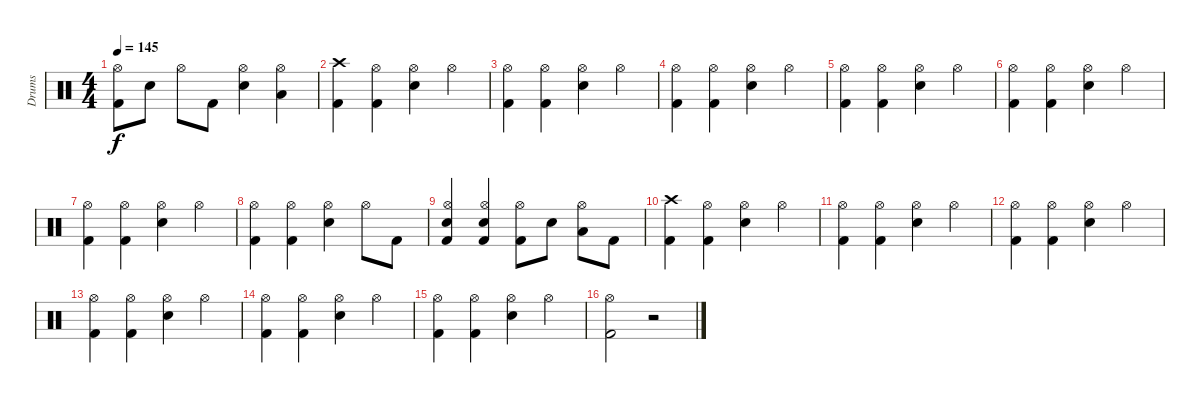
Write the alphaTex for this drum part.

\track ("Drums" "Drums") {instrument percussion}
\staff {score}
\articulation defaults
\ts (4 4)
\tempo 145
\clef neutral
\ks c
("Kick (hit) 2" "Hi-Hat (open)").8{dy f} "Snare (hit) 2".8 "Hi-Hat (open)".8 "Kick (hit) 2".8 ("Snare (hit) 2" "Hi-Hat (open)").4 ("Low Tom (hit)" "Hi-Hat (open)").4 |
("Crash high (hit)" "Kick (hit) 2").4 ("Kick (hit) 2" "Hi-Hat (open)").4 ("Snare (hit) 2" "Hi-Hat (open)").4 "Hi-Hat (open)".4 |
("Kick (hit) 2" "Hi-Hat (open)").4 ("Kick (hit) 2" "Hi-Hat (open)").4 ("Snare (hit) 2" "Hi-Hat (open)").4 "Hi-Hat (open)".4 |
("Kick (hit) 2" "Hi-Hat (open)").4 ("Kick (hit) 2" "Hi-Hat (open)").4 ("Snare (hit) 2" "Hi-Hat (open)").4 "Hi-Hat (open)".4 |
("Kick (hit) 2" "Hi-Hat (open)").4 ("Kick (hit) 2" "Hi-Hat (open)").4 ("Snare (hit) 2" "Hi-Hat (open)").4 "Hi-Hat (open)".4 |
("Kick (hit) 2" "Hi-Hat (open)").4 ("Kick (hit) 2" "Hi-Hat (open)").4 ("Snare (hit) 2" "Hi-Hat (open)").4 "Hi-Hat (open)".4 |
("Kick (hit) 2" "Hi-Hat (open)").4 ("Kick (hit) 2" "Hi-Hat (open)").4 ("Snare (hit) 2" "Hi-Hat (open)").4 "Hi-Hat (open)".4 |
("Kick (hit) 2" "Hi-Hat (open)").4 ("Kick (hit) 2" "Hi-Hat (open)").4 ("Snare (hit) 2" "Hi-Hat (open)").4 "Hi-Hat (open)".8 "Kick (hit) 2".8 |
("Snare (hit) 2" "Kick (hit) 2" "Hi-Hat (open)").4 ("Snare (hit) 2" "Kick (hit) 2" "Hi-Hat (open)").4 ("Kick (hit) 2" "Hi-Hat (open)").8 "Snare (hit) 2".8 ("Low Tom (hit)" "Hi-Hat (open)").8 "Kick (hit) 2".8 |
("Crash high (hit)" "Kick (hit) 2").4 ("Kick (hit) 2" "Hi-Hat (open)").4 ("Snare (hit) 2" "Hi-Hat (open)").4 "Hi-Hat (open)".4 |
("Kick (hit) 2" "Hi-Hat (open)").4 ("Kick (hit) 2" "Hi-Hat (open)").4 ("Snare (hit) 2" "Hi-Hat (open)").4 "Hi-Hat (open)".4 |
("Kick (hit) 2" "Hi-Hat (open)").4 ("Kick (hit) 2" "Hi-Hat (open)").4 ("Snare (hit) 2" "Hi-Hat (open)").4 "Hi-Hat (open)".4 |
("Kick (hit) 2" "Hi-Hat (open)").4 ("Kick (hit) 2" "Hi-Hat (open)").4 ("Snare (hit) 2" "Hi-Hat (open)").4 "Hi-Hat (open)".4 |
("Kick (hit) 2" "Hi-Hat (open)").4 ("Kick (hit) 2" "Hi-Hat (open)").4 ("Snare (hit) 2" "Hi-Hat (open)").4 "Hi-Hat (open)".4 |
("Kick (hit) 2" "Hi-Hat (open)").4 ("Kick (hit) 2" "Hi-Hat (open)").4 ("Snare (hit) 2" "Hi-Hat (open)").4 "Hi-Hat (open)".4 |
("Kick (hit) 2" "Hi-Hat (open)").2 r.2
